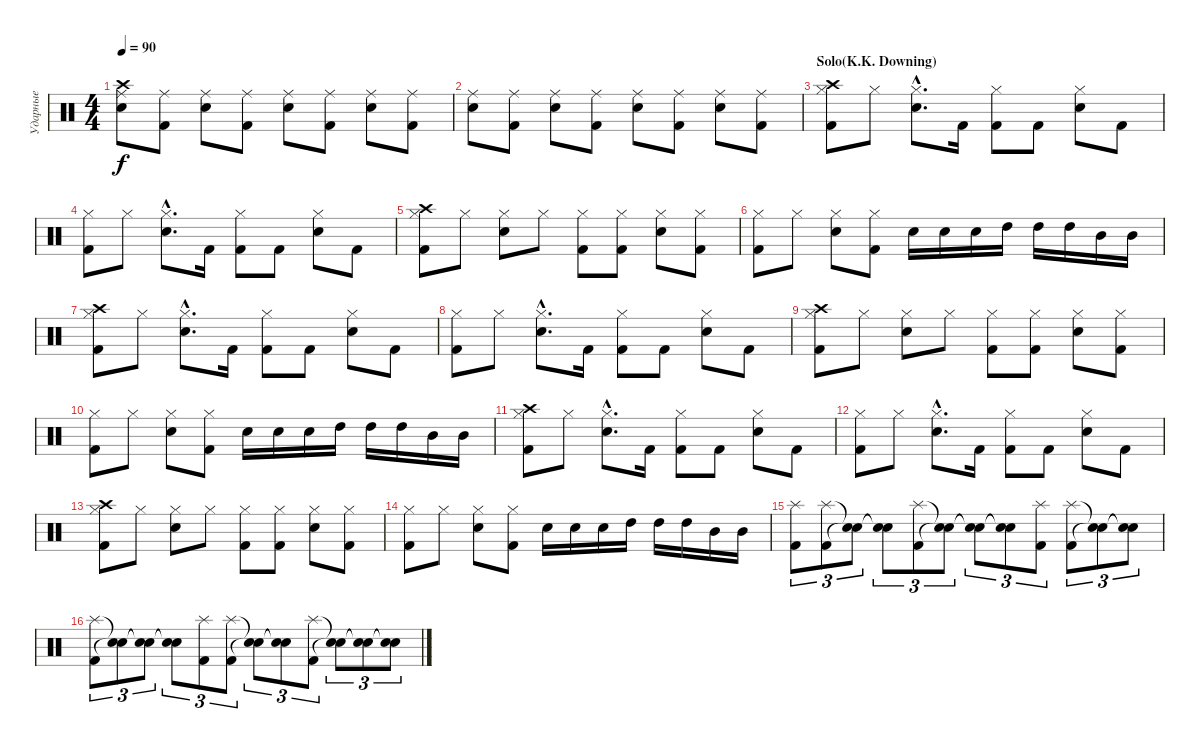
\track ("Ударные" "Ударные") {instrument percussion}
\staff {score}
\articulation defaults
\ts (4 4)
\tempo 90
\clef neutral
\ks c
("Crash high (hit)" "Ride (middle)" "Snare (hit) 2").8{dy f} ("Ride (middle)" "Kick (hit) 2").8 ("Ride (middle)" "Snare (hit) 2").8 ("Ride (middle)" "Kick (hit) 2").8 ("Ride (middle)" "Snare (hit) 2").8 ("Ride (middle)" "Kick (hit) 2").8 ("Ride (middle)" "Snare (hit) 2").8 ("Ride (middle)" "Kick (hit) 2").8 |
("Ride (middle)" "Snare (hit) 2").8 ("Ride (middle)" "Kick (hit) 2").8 ("Ride (middle)" "Snare (hit) 2").8 ("Ride (middle)" "Kick (hit) 2").8 ("Ride (middle)" "Snare (hit) 2").8 ("Ride (middle)" "Kick (hit) 2").8 ("Ride (middle)" "Snare (hit) 2").8 ("Ride (middle)" "Kick (hit) 2").8 |
\section ("" "Solo(K.K. Downing)")
("Crash high (hit)" "Hi-Hat (closed)" "Kick (hit) 2").8 "Hi-Hat (closed)".8 ("Hi-Hat (closed)"{hac} "Snare (hit) 2"{hac}).8{d} "Kick (hit) 2".16 ("Hi-Hat (closed)" "Kick (hit) 2").8 "Kick (hit) 2".8 ("Hi-Hat (closed)" "Snare (hit) 2").8 "Kick (hit) 2".8 |
("Hi-Hat (closed)" "Kick (hit) 2").8 "Hi-Hat (closed)".8 ("Hi-Hat (closed)"{hac} "Snare (hit) 2"{hac}).8{d} "Kick (hit) 2".16 ("Hi-Hat (closed)" "Kick (hit) 2").8 "Kick (hit) 2".8 ("Hi-Hat (closed)" "Snare (hit) 2").8 "Kick (hit) 2".8 |
("Crash high (hit)" "Hi-Hat (closed)" "Kick (hit) 2").8 "Hi-Hat (closed)".8 ("Hi-Hat (closed)" "Snare (hit) 2").8 "Hi-Hat (closed)".8 ("Hi-Hat (closed)" "Kick (hit) 2").8 ("Hi-Hat (closed)" "Kick (hit) 2").8 ("Hi-Hat (closed)" "Snare (hit) 2").8 ("Hi-Hat (closed)" "Kick (hit) 2").8 |
("Hi-Hat (closed)" "Kick (hit) 2").8 "Hi-Hat (closed)".8 ("Hi-Hat (closed)" "Snare (hit) 2").8 ("Hi-Hat (closed)" "Kick (hit) 2").8 "Snare (hit) 2".16 "Snare (hit) 2".16 "Snare (hit) 2".16 "High Tom (hit)".16 "High Tom (hit)".16 "High Tom (hit)".16 "Mid Tom (hit)".16 "Mid Tom (hit)".16 |
("Crash high (hit)" "Hi-Hat (closed)" "Kick (hit) 2").8 "Hi-Hat (closed)".8 ("Hi-Hat (closed)"{hac} "Snare (hit) 2"{hac}).8{d} "Kick (hit) 2".16 ("Hi-Hat (closed)" "Kick (hit) 2").8 "Kick (hit) 2".8 ("Hi-Hat (closed)" "Snare (hit) 2").8 "Kick (hit) 2".8 |
("Hi-Hat (closed)" "Kick (hit) 2").8 "Hi-Hat (closed)".8 ("Hi-Hat (closed)"{hac} "Snare (hit) 2"{hac}).8{d} "Kick (hit) 2".16 ("Hi-Hat (closed)" "Kick (hit) 2").8 "Kick (hit) 2".8 ("Hi-Hat (closed)" "Snare (hit) 2").8 "Kick (hit) 2".8 |
("Crash high (hit)" "Hi-Hat (closed)" "Kick (hit) 2").8 "Hi-Hat (closed)".8 ("Hi-Hat (closed)" "Snare (hit) 2").8 "Hi-Hat (closed)".8 ("Hi-Hat (closed)" "Kick (hit) 2").8 ("Hi-Hat (closed)" "Kick (hit) 2").8 ("Hi-Hat (closed)" "Snare (hit) 2").8 ("Hi-Hat (closed)" "Kick (hit) 2").8 |
("Hi-Hat (closed)" "Kick (hit) 2").8 "Hi-Hat (closed)".8 ("Hi-Hat (closed)" "Snare (hit) 2").8 ("Hi-Hat (closed)" "Kick (hit) 2").8 "Snare (hit) 2".16 "Snare (hit) 2".16 "Snare (hit) 2".16 "High Tom (hit)".16 "High Tom (hit)".16 "High Tom (hit)".16 "Mid Tom (hit)".16 "Mid Tom (hit)".16 |
("Crash high (hit)" "Hi-Hat (closed)" "Kick (hit) 2").8 "Hi-Hat (closed)".8 ("Hi-Hat (closed)"{hac} "Snare (hit) 2"{hac}).8{d} "Kick (hit) 2".16 ("Hi-Hat (closed)" "Kick (hit) 2").8 "Kick (hit) 2".8 ("Hi-Hat (closed)" "Snare (hit) 2").8 "Kick (hit) 2".8 |
("Hi-Hat (closed)" "Kick (hit) 2").8 "Hi-Hat (closed)".8 ("Hi-Hat (closed)"{hac} "Snare (hit) 2"{hac}).8{d} "Kick (hit) 2".16 ("Hi-Hat (closed)" "Kick (hit) 2").8 "Kick (hit) 2".8 ("Hi-Hat (closed)" "Snare (hit) 2").8 "Kick (hit) 2".8 |
("Crash high (hit)" "Hi-Hat (closed)" "Kick (hit) 2").8 "Hi-Hat (closed)".8 ("Hi-Hat (closed)" "Snare (hit) 2").8 "Hi-Hat (closed)".8 ("Hi-Hat (closed)" "Kick (hit) 2").8 ("Hi-Hat (closed)" "Kick (hit) 2").8 ("Hi-Hat (closed)" "Snare (hit) 2").8 ("Hi-Hat (closed)" "Kick (hit) 2").8 |
("Hi-Hat (closed)" "Kick (hit) 2").8 "Hi-Hat (closed)".8 ("Hi-Hat (closed)" "Snare (hit) 2").8 ("Hi-Hat (closed)" "Kick (hit) 2").8 "Snare (hit) 2".16 "Snare (hit) 2".16 "Snare (hit) 2".16 "High Tom (hit)".16 "High Tom (hit)".16 "High Tom (hit)".16 "Mid Tom (hit)".16 "Mid Tom (hit)".16 |
("Splash (hit)" "Kick (hit) 2").8{tu (3 2)} ("Splash (hit)" "Kick (hit) 2").8{tu (3 2)} ("Snare (hit)"{t} "Snare (hit)"{t}).8{tu (3 2)} ("Snare (hit)"{t} "Snare (hit)"{t}).8{tu (3 2)} ("Splash (hit)" "Kick (hit) 2").8{tu (3 2)} ("Snare (hit)"{t} "Snare (hit)"{t}).8{tu (3 2)} ("Snare (hit)"{t} "Snare (hit)"{t}).8{tu (3 2)} ("Snare (hit)"{t} "Snare (hit)"{t}).8{tu (3 2)} ("Splash (hit)" "Kick (hit) 2").8{tu (3 2)} ("Splash (hit)" "Kick (hit) 2").8{tu (3 2)} ("Snare (hit)"{t} "Snare (hit)"{t}).8{tu (3 2)} ("Snare (hit)"{t} "Snare (hit)"{t}).8{tu (3 2)} |
("Splash (hit)" "Kick (hit) 2").8{tu (3 2)} ("Snare (hit)"{t} "Snare (hit)"{t}).8{tu (3 2)} ("Snare (hit)"{t} "Snare (hit)"{t}).8{tu (3 2)} ("Snare (hit)"{t} "Snare (hit)"{t}).8{tu (3 2)} ("Splash (hit)" "Kick (hit) 2").8{tu (3 2)} ("Splash (hit)" "Kick (hit) 2").8{tu (3 2)} ("Snare (hit)"{t} "Snare (hit)"{t}).8{tu (3 2)} ("Snare (hit)"{t} "Snare (hit)"{t}).8{tu (3 2)} ("Splash (hit)" "Kick (hit) 2").8{tu (3 2)} ("Snare (hit)"{t} "Snare (hit)"{t}).8{tu (3 2)} ("Snare (hit)"{t} "Snare (hit)"{t}).8{tu (3 2)} ("Snare (hit)"{t} "Snare (hit)"{t}).8{tu (3 2)}
